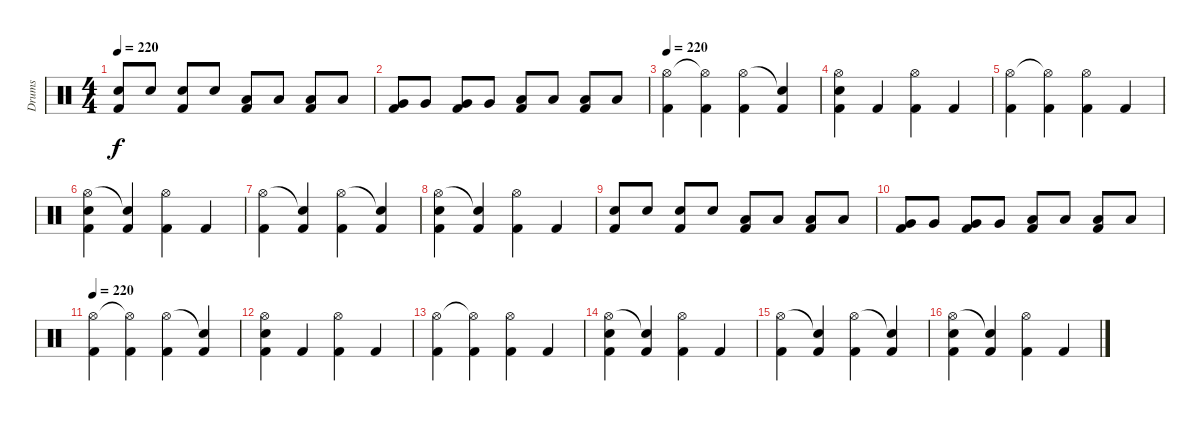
\track ("Drums" "Drums") {instrument percussion}
\staff {score}
\articulation defaults
\ts (4 4)
\tempo 220
\clef neutral
\ks c
("Snare (hit) 2" "Kick (hit) 2").8{dy f} "Snare (hit) 2".8 ("Snare (hit) 2" "Kick (hit) 2").8 "Snare (hit) 2".8 ("Low Tom (hit)" "Kick (hit) 2").8 "Low Tom (hit)".8 ("Low Tom (hit)" "Kick (hit) 2").8 "Low Tom (hit)".8 |
("Very Low Tom (hit)" "Kick (hit) 2").8 "Very Low Tom (hit)".8 ("Very Low Tom (hit)" "Kick (hit) 2").8 "Very Low Tom (hit)".8 ("Low Floor Tom (hit)" "Kick (hit) 2").8 "Low Floor Tom (hit)".8 ("Low Floor Tom (hit)" "Kick (hit) 2").8 "Low Floor Tom (hit)".8 |
\tempo 250
\tempo 220
("Hi-Hat (open)" "Kick (hit) 2").4 ("Hi-Hat (open)"{t} "Kick (hit) 2").4 ("Hi-Hat (open)" "Kick (hit) 2").4 ("Snare (hit)"{t} "Kick (hit) 2").4 |
("Hi-Hat (open)" "Snare (hit) 2" "Kick (hit) 2").4 "Kick (hit) 2".4 ("Hi-Hat (open)" "Kick (hit) 2").4 "Kick (hit) 2".4 |
("Hi-Hat (open)" "Kick (hit) 2").4 ("Hi-Hat (open)"{t} "Kick (hit) 2").4 ("Hi-Hat (open)" "Kick (hit) 2").4 "Kick (hit) 2".4 |
("Hi-Hat (open)" "Snare (hit) 2" "Kick (hit) 2").4 ("Snare (hit)"{t} "Kick (hit) 2").4 ("Hi-Hat (open)" "Kick (hit) 2").4 "Kick (hit) 2".4 |
("Hi-Hat (open)" "Kick (hit) 2").4 ("Snare (hit)"{t} "Kick (hit) 2").4 ("Hi-Hat (open)" "Kick (hit) 2").4 ("Snare (hit)"{t} "Kick (hit) 2").4 |
("Hi-Hat (open)" "Snare (hit) 2" "Kick (hit) 2").4 ("Snare (hit)"{t} "Kick (hit) 2").4 ("Hi-Hat (open)" "Kick (hit) 2").4 "Kick (hit) 2".4 |
("Snare (hit) 2" "Kick (hit) 2").8 "Snare (hit) 2".8 ("Snare (hit) 2" "Kick (hit) 2").8 "Snare (hit) 2".8 ("Low Tom (hit)" "Kick (hit) 2").8 "Low Tom (hit)".8 ("Low Tom (hit)" "Kick (hit) 2").8 "Low Tom (hit)".8 |
("Very Low Tom (hit)" "Kick (hit) 2").8 "Very Low Tom (hit)".8 ("Very Low Tom (hit)" "Kick (hit) 2").8 "Very Low Tom (hit)".8 ("Low Floor Tom (hit)" "Kick (hit) 2").8 "Low Floor Tom (hit)".8 ("Low Floor Tom (hit)" "Kick (hit) 2").8 "Low Floor Tom (hit)".8 |
\tempo 250
\tempo 220
("Hi-Hat (open)" "Kick (hit) 2").4 ("Hi-Hat (open)"{t} "Kick (hit) 2").4 ("Hi-Hat (open)" "Kick (hit) 2").4 ("Snare (hit)"{t} "Kick (hit) 2").4 |
("Hi-Hat (open)" "Snare (hit) 2" "Kick (hit) 2").4 "Kick (hit) 2".4 ("Hi-Hat (open)" "Kick (hit) 2").4 "Kick (hit) 2".4 |
("Hi-Hat (open)" "Kick (hit) 2").4 ("Hi-Hat (open)"{t} "Kick (hit) 2").4 ("Hi-Hat (open)" "Kick (hit) 2").4 "Kick (hit) 2".4 |
("Hi-Hat (open)" "Snare (hit) 2" "Kick (hit) 2").4 ("Snare (hit)"{t} "Kick (hit) 2").4 ("Hi-Hat (open)" "Kick (hit) 2").4 "Kick (hit) 2".4 |
("Hi-Hat (open)" "Kick (hit) 2").4 ("Snare (hit)"{t} "Kick (hit) 2").4 ("Hi-Hat (open)" "Kick (hit) 2").4 ("Snare (hit)"{t} "Kick (hit) 2").4 |
("Hi-Hat (open)" "Snare (hit) 2" "Kick (hit) 2").4 ("Snare (hit)"{t} "Kick (hit) 2").4 ("Hi-Hat (open)" "Kick (hit) 2").4 "Kick (hit) 2".4
